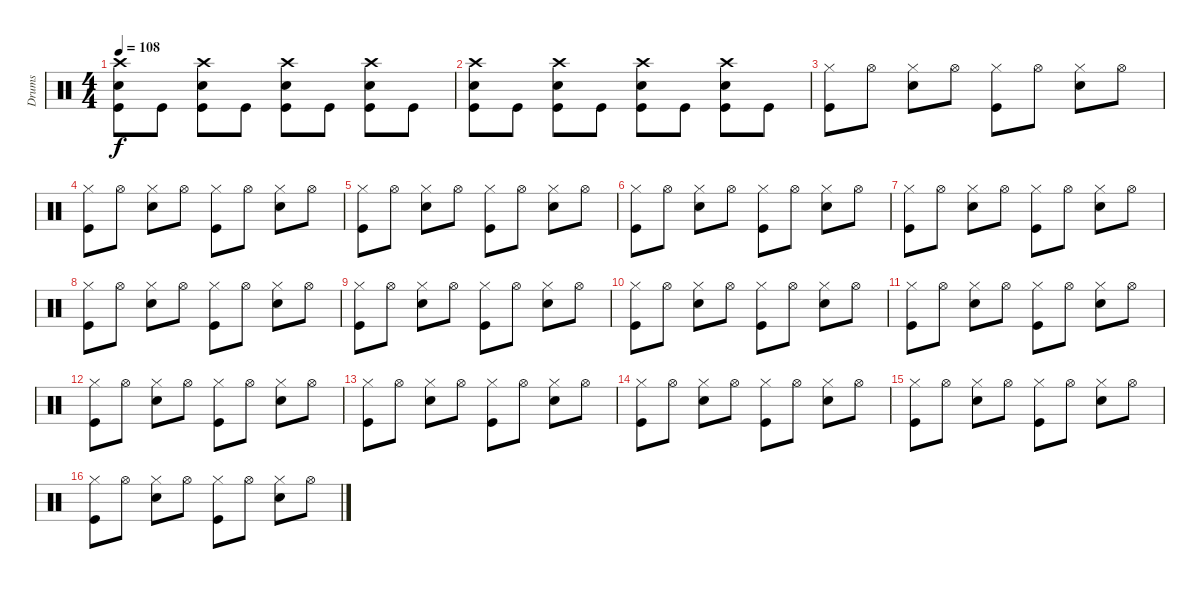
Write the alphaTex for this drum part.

\track ("Drums" "Drums") {instrument percussion}
\staff {score}
\articulation defaults
\ts (4 4)
\tempo 108
\clef neutral
\ks c
("Crash high (hit)" "Electric Snare (hit)" "Kick (hit)").8{dy f} "Kick (hit)".8 ("Crash high (hit)" "Electric Snare (hit)" "Kick (hit)").8 "Kick (hit)".8 ("Crash high (hit)" "Electric Snare (hit)" "Kick (hit)").8 "Kick (hit)".8 ("Crash high (hit)" "Electric Snare (hit)" "Kick (hit)").8 "Kick (hit)".8 |
("Crash high (hit)" "Electric Snare (hit)" "Kick (hit)").8 "Kick (hit)".8 ("Crash high (hit)" "Electric Snare (hit)" "Kick (hit)").8 "Kick (hit)".8 ("Crash high (hit)" "Electric Snare (hit)" "Kick (hit)").8 "Kick (hit)".8 ("Crash high (hit)" "Electric Snare (hit)" "Kick (hit)").8 "Kick (hit)".8 |
("Hi-Hat (closed)" "Kick (hit)").8 "Hi-Hat (open)".8 ("Hi-Hat (closed)" "Electric Snare (hit)").8 "Hi-Hat (open)".8 ("Hi-Hat (closed)" "Kick (hit)").8 "Hi-Hat (open)".8 ("Hi-Hat (closed)" "Electric Snare (hit)").8 "Hi-Hat (open)".8 |
("Hi-Hat (closed)" "Kick (hit)").8 "Hi-Hat (open)".8 ("Hi-Hat (closed)" "Electric Snare (hit)").8 "Hi-Hat (open)".8 ("Hi-Hat (closed)" "Kick (hit)").8 "Hi-Hat (open)".8 ("Hi-Hat (closed)" "Electric Snare (hit)").8 "Hi-Hat (open)".8 |
("Hi-Hat (closed)" "Kick (hit)").8 "Hi-Hat (open)".8 ("Hi-Hat (closed)" "Electric Snare (hit)").8 "Hi-Hat (open)".8 ("Hi-Hat (closed)" "Kick (hit)").8 "Hi-Hat (open)".8 ("Hi-Hat (closed)" "Electric Snare (hit)").8 "Hi-Hat (open)".8 |
("Hi-Hat (closed)" "Kick (hit)").8 "Hi-Hat (open)".8 ("Hi-Hat (closed)" "Electric Snare (hit)").8 "Hi-Hat (open)".8 ("Hi-Hat (closed)" "Kick (hit)").8 "Hi-Hat (open)".8 ("Hi-Hat (closed)" "Electric Snare (hit)").8 "Hi-Hat (open)".8 |
("Hi-Hat (closed)" "Kick (hit)").8 "Hi-Hat (open)".8 ("Hi-Hat (closed)" "Electric Snare (hit)").8 "Hi-Hat (open)".8 ("Hi-Hat (closed)" "Kick (hit)").8 "Hi-Hat (open)".8 ("Hi-Hat (closed)" "Electric Snare (hit)").8 "Hi-Hat (open)".8 |
("Hi-Hat (closed)" "Kick (hit)").8 "Hi-Hat (open)".8 ("Hi-Hat (closed)" "Electric Snare (hit)").8 "Hi-Hat (open)".8 ("Hi-Hat (closed)" "Kick (hit)").8 "Hi-Hat (open)".8 ("Hi-Hat (closed)" "Electric Snare (hit)").8 "Hi-Hat (open)".8 |
("Hi-Hat (closed)" "Kick (hit)").8 "Hi-Hat (open)".8 ("Hi-Hat (closed)" "Electric Snare (hit)").8 "Hi-Hat (open)".8 ("Hi-Hat (closed)" "Kick (hit)").8 "Hi-Hat (open)".8 ("Hi-Hat (closed)" "Electric Snare (hit)").8 "Hi-Hat (open)".8 |
("Hi-Hat (closed)" "Kick (hit)").8 "Hi-Hat (open)".8 ("Hi-Hat (closed)" "Electric Snare (hit)").8 "Hi-Hat (open)".8 ("Hi-Hat (closed)" "Kick (hit)").8 "Hi-Hat (open)".8 ("Hi-Hat (closed)" "Electric Snare (hit)").8 "Hi-Hat (open)".8 |
("Hi-Hat (closed)" "Kick (hit)").8 "Hi-Hat (open)".8 ("Hi-Hat (closed)" "Electric Snare (hit)").8 "Hi-Hat (open)".8 ("Hi-Hat (closed)" "Kick (hit)").8 "Hi-Hat (open)".8 ("Hi-Hat (closed)" "Electric Snare (hit)").8 "Hi-Hat (open)".8 |
("Hi-Hat (closed)" "Kick (hit)").8 "Hi-Hat (open)".8 ("Hi-Hat (closed)" "Electric Snare (hit)").8 "Hi-Hat (open)".8 ("Hi-Hat (closed)" "Kick (hit)").8 "Hi-Hat (open)".8 ("Hi-Hat (closed)" "Electric Snare (hit)").8 "Hi-Hat (open)".8 |
("Hi-Hat (closed)" "Kick (hit)").8 "Hi-Hat (open)".8 ("Hi-Hat (closed)" "Electric Snare (hit)").8 "Hi-Hat (open)".8 ("Hi-Hat (closed)" "Kick (hit)").8 "Hi-Hat (open)".8 ("Hi-Hat (closed)" "Electric Snare (hit)").8 "Hi-Hat (open)".8 |
("Hi-Hat (closed)" "Kick (hit)").8 "Hi-Hat (open)".8 ("Hi-Hat (closed)" "Electric Snare (hit)").8 "Hi-Hat (open)".8 ("Hi-Hat (closed)" "Kick (hit)").8 "Hi-Hat (open)".8 ("Hi-Hat (closed)" "Electric Snare (hit)").8 "Hi-Hat (open)".8 |
("Hi-Hat (closed)" "Kick (hit)").8 "Hi-Hat (open)".8 ("Hi-Hat (closed)" "Electric Snare (hit)").8 "Hi-Hat (open)".8 ("Hi-Hat (closed)" "Kick (hit)").8 "Hi-Hat (open)".8 ("Hi-Hat (closed)" "Electric Snare (hit)").8 "Hi-Hat (open)".8 |
("Hi-Hat (closed)" "Kick (hit)").8 "Hi-Hat (open)".8 ("Hi-Hat (closed)" "Electric Snare (hit)").8 "Hi-Hat (open)".8 ("Hi-Hat (closed)" "Kick (hit)").8 "Hi-Hat (open)".8 ("Hi-Hat (closed)" "Electric Snare (hit)").8 "Hi-Hat (open)".8
